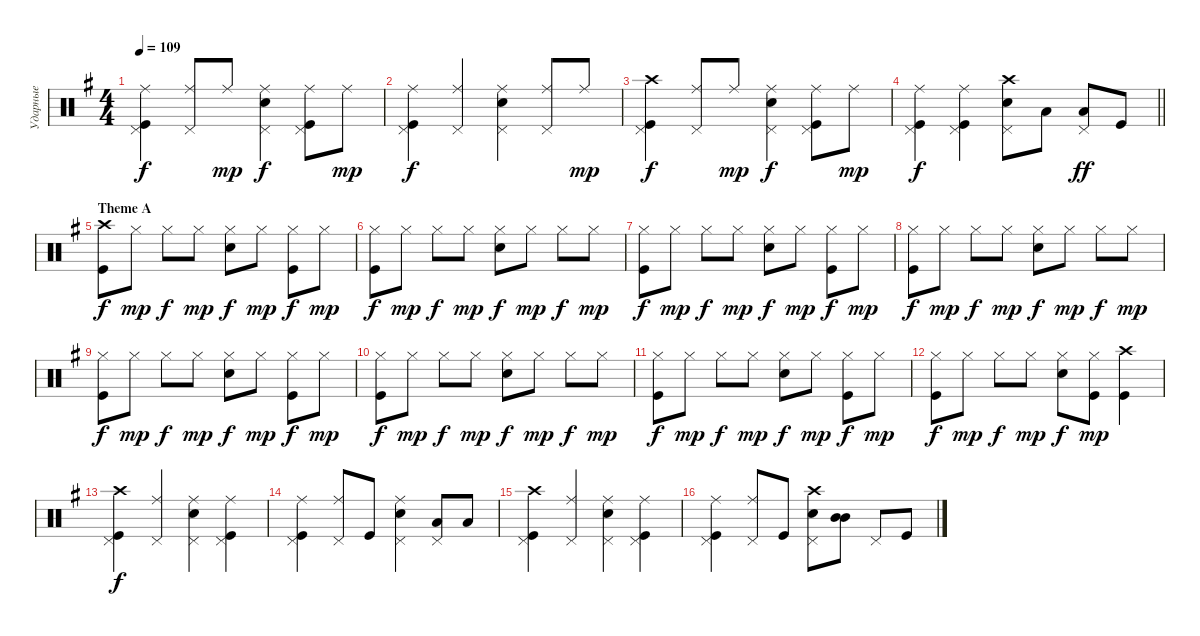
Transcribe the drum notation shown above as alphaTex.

\track ("Ударные" "Ударные") {instrument percussion}
\staff {score}
\articulation defaults
\ts (4 4)
\tempo 109
\clef neutral
\ks eminor
("Ride (middle)" "Pedal Hi-Hat (hit)" "Kick (hit)").4{dy f} ("Ride (middle)" "Pedal Hi-Hat (hit)").8 "Ride (middle)".8{dy mp} ("Ride (middle)" "Pedal Hi-Hat (hit)" "Snare (hit) 2").4{dy f} ("Ride (middle)" "Pedal Hi-Hat (hit)" "Kick (hit)").8 "Ride (middle)".8{dy mp} |
("Ride (middle)" "Pedal Hi-Hat (hit)" "Kick (hit)").4{dy f} ("Ride (middle)" "Pedal Hi-Hat (hit)").4 ("Ride (middle)" "Pedal Hi-Hat (hit)" "Snare (hit) 2").4 ("Ride (middle)" "Pedal Hi-Hat (hit)").8 "Ride (middle)".8{dy mp} |
("Crash high (hit)" "Pedal Hi-Hat (hit)" "Kick (hit)").4{dy f} ("Ride (middle)" "Pedal Hi-Hat (hit)").8 "Ride (middle)".8{dy mp} ("Ride (middle)" "Pedal Hi-Hat (hit)" "Snare (hit) 2").4{dy f} ("Ride (middle)" "Pedal Hi-Hat (hit)" "Kick (hit)").8 "Ride (middle)".8{dy mp} |
\barLineRight lightlight
("Ride (middle)" "Pedal Hi-Hat (hit)" "Kick (hit)").4{dy f} ("Ride (middle)" "Pedal Hi-Hat (hit)" "Kick (hit)").4 ("Crash high (hit)" "Pedal Hi-Hat (hit)" "Snare (hit) 2").8 "Low Tom (hit)".8 ("Low Tom (hit)" "Pedal Hi-Hat (hit)").8{dy ff} "Kick (hit)".8 |
\section ("" "Theme A")
("Kick (hit)" "Crash high (hit)").8{dy f} "Hi-Hat (closed)".8{dy mp} "Hi-Hat (closed)".8{dy f} "Hi-Hat (closed)".8{dy mp} ("Hi-Hat (closed)" "Snare (hit) 2").8{dy f} "Hi-Hat (closed)".8{dy mp} ("Hi-Hat (closed)" "Kick (hit)").8{dy f} "Hi-Hat (closed)".8{dy mp} |
("Kick (hit)" "Hi-Hat (closed)").8{dy f} "Hi-Hat (closed)".8{dy mp} "Hi-Hat (closed)".8{dy f} "Hi-Hat (closed)".8{dy mp} ("Hi-Hat (closed)" "Snare (hit) 2").8{dy f} "Hi-Hat (closed)".8{dy mp} "Hi-Hat (closed)".8{dy f} "Hi-Hat (closed)".8{dy mp} |
("Kick (hit)" "Hi-Hat (closed)").8{dy f} "Hi-Hat (closed)".8{dy mp} "Hi-Hat (closed)".8{dy f} "Hi-Hat (closed)".8{dy mp} ("Hi-Hat (closed)" "Snare (hit) 2").8{dy f} "Hi-Hat (closed)".8{dy mp} ("Hi-Hat (closed)" "Kick (hit)").8{dy f} "Hi-Hat (closed)".8{dy mp} |
("Kick (hit)" "Hi-Hat (closed)").8{dy f} "Hi-Hat (closed)".8{dy mp} "Hi-Hat (closed)".8{dy f} "Hi-Hat (closed)".8{dy mp} ("Hi-Hat (closed)" "Snare (hit) 2").8{dy f} "Hi-Hat (closed)".8{dy mp} "Hi-Hat (closed)".8{dy f} "Hi-Hat (closed)".8{dy mp} |
("Kick (hit)" "Hi-Hat (closed)").8{dy f} "Hi-Hat (closed)".8{dy mp} "Hi-Hat (closed)".8{dy f} "Hi-Hat (closed)".8{dy mp} ("Hi-Hat (closed)" "Snare (hit) 2").8{dy f} "Hi-Hat (closed)".8{dy mp} ("Hi-Hat (closed)" "Kick (hit)").8{dy f} "Hi-Hat (closed)".8{dy mp} |
("Kick (hit)" "Hi-Hat (closed)").8{dy f} "Hi-Hat (closed)".8{dy mp} "Hi-Hat (closed)".8{dy f} "Hi-Hat (closed)".8{dy mp} ("Hi-Hat (closed)" "Snare (hit) 2").8{dy f} "Hi-Hat (closed)".8{dy mp} "Hi-Hat (closed)".8{dy f} "Hi-Hat (closed)".8{dy mp} |
("Kick (hit)" "Hi-Hat (closed)").8{dy f} "Hi-Hat (closed)".8{dy mp} "Hi-Hat (closed)".8{dy f} "Hi-Hat (closed)".8{dy mp} ("Hi-Hat (closed)" "Snare (hit) 2").8{dy f} "Hi-Hat (closed)".8{dy mp} ("Hi-Hat (closed)" "Kick (hit)").8{dy f} "Hi-Hat (closed)".8{dy mp} |
("Kick (hit)" "Hi-Hat (closed)").8{dy f} "Hi-Hat (closed)".8{dy mp} "Hi-Hat (closed)".8{dy f} "Hi-Hat (closed)".8{dy mp} ("Hi-Hat (closed)" "Snare (hit) 2").8{dy f} ("Kick (hit)" "Hi-Hat (closed)").8{dy mp} ("Crash high (hit)" "Kick (hit)").4 |
("Kick (hit)" "Crash high (hit)" "Pedal Hi-Hat (hit)").4{dy f} ("Ride (middle)" "Pedal Hi-Hat (hit)").4 ("Pedal Hi-Hat (hit)" "Snare (hit) 2" "Ride (middle)").4 ("Ride (middle)" "Kick (hit)" "Pedal Hi-Hat (hit)").4 |
("Kick (hit)" "Ride (middle)" "Pedal Hi-Hat (hit)").4 ("Pedal Hi-Hat (hit)" "Ride (middle)").8 "Kick (hit)".8 ("Snare (hit) 2" "Pedal Hi-Hat (hit)" "Ride (middle)").4 ("Low Tom (hit)" "Pedal Hi-Hat (hit)").8 "Low Tom (hit)".8 |
("Kick (hit)" "Crash high (hit)" "Pedal Hi-Hat (hit)").4 ("Ride (middle)" "Pedal Hi-Hat (hit)").4 ("Pedal Hi-Hat (hit)" "Snare (hit) 2" "Ride (middle)").4 ("Ride (middle)" "Kick (hit)" "Pedal Hi-Hat (hit)").4 |
("Kick (hit)" "Ride (middle)" "Pedal Hi-Hat (hit)").4 ("Ride (middle)" "Pedal Hi-Hat (hit)").8 "Kick (hit)".8 ("Crash high (hit)" "Snare (hit) 2" "Pedal Hi-Hat (hit)").8 ("Mid Tom (hit)" "Mid Tom (hit)").8{bd 240} "Pedal Hi-Hat (hit)".8 "Kick (hit)".8
